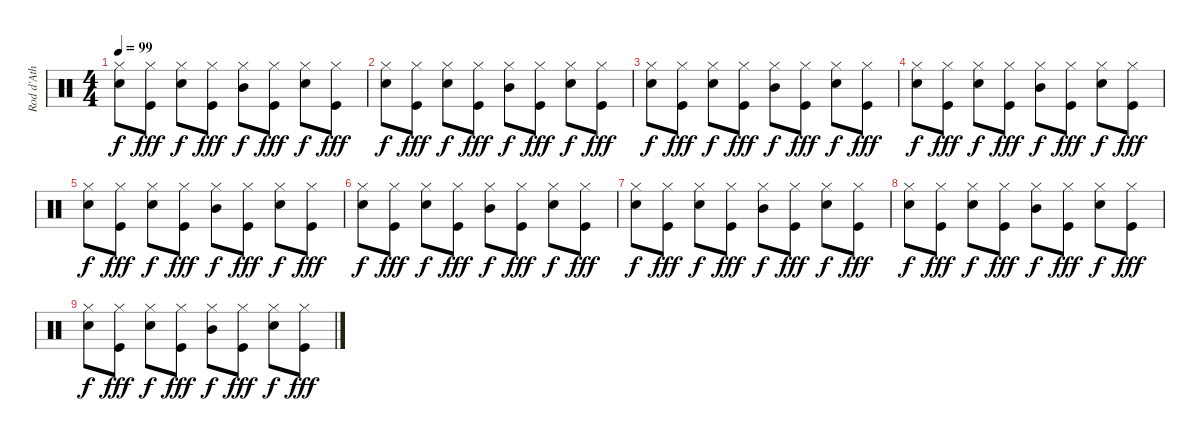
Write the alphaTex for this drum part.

\track ("Rod d'Ath" "Rod d'Ath") {instrument percussion}
\staff {score}
\articulation defaults
\ts (4 4)
\tempo 99
\clef neutral
\ks c
("Hi-Hat (closed)" "Snare (hit) 2").8{dy f} ("Hi-Hat (closed)" "Kick (hit)").8{dy fff} ("Hi-Hat (closed)" "Snare (hit) 2").8{dy f} ("Hi-Hat (closed)" "Kick (hit)").8{dy fff} ("Hi-Hat (closed)" "Mid Tom (hit)").8{dy f} ("Hi-Hat (closed)" "Kick (hit)").8{dy fff} ("Hi-Hat (closed)" "Snare (hit) 2").8{dy f} ("Hi-Hat (closed)" "Kick (hit)").8{dy fff} |
("Hi-Hat (closed)" "Snare (hit) 2").8{dy f} ("Hi-Hat (closed)" "Kick (hit)").8{dy fff} ("Hi-Hat (closed)" "Snare (hit) 2").8{dy f} ("Hi-Hat (closed)" "Kick (hit)").8{dy fff} ("Hi-Hat (closed)" "Mid Tom (hit)").8{dy f} ("Hi-Hat (closed)" "Kick (hit)").8{dy fff} ("Hi-Hat (closed)" "Snare (hit) 2").8{dy f} ("Hi-Hat (closed)" "Kick (hit)").8{dy fff} |
("Hi-Hat (closed)" "Snare (hit) 2").8{dy f} ("Hi-Hat (closed)" "Kick (hit)").8{dy fff} ("Hi-Hat (closed)" "Snare (hit) 2").8{dy f} ("Hi-Hat (closed)" "Kick (hit)").8{dy fff} ("Hi-Hat (closed)" "Mid Tom (hit)").8{dy f} ("Hi-Hat (closed)" "Kick (hit)").8{dy fff} ("Hi-Hat (closed)" "Snare (hit) 2").8{dy f} ("Hi-Hat (closed)" "Kick (hit)").8{dy fff} |
("Hi-Hat (closed)" "Snare (hit) 2").8{dy f} ("Hi-Hat (closed)" "Kick (hit)").8{dy fff} ("Hi-Hat (closed)" "Snare (hit) 2").8{dy f} ("Hi-Hat (closed)" "Kick (hit)").8{dy fff} ("Hi-Hat (closed)" "Mid Tom (hit)").8{dy f} ("Hi-Hat (closed)" "Kick (hit)").8{dy fff} ("Hi-Hat (closed)" "Snare (hit) 2").8{dy f} ("Hi-Hat (closed)" "Kick (hit)").8{dy fff} |
("Hi-Hat (closed)" "Snare (hit) 2").8{dy f} ("Hi-Hat (closed)" "Kick (hit)").8{dy fff} ("Hi-Hat (closed)" "Snare (hit) 2").8{dy f} ("Hi-Hat (closed)" "Kick (hit)").8{dy fff} ("Hi-Hat (closed)" "Mid Tom (hit)").8{dy f} ("Hi-Hat (closed)" "Kick (hit)").8{dy fff} ("Hi-Hat (closed)" "Snare (hit) 2").8{dy f} ("Hi-Hat (closed)" "Kick (hit)").8{dy fff} |
("Hi-Hat (closed)" "Snare (hit) 2").8{dy f} ("Hi-Hat (closed)" "Kick (hit)").8{dy fff} ("Hi-Hat (closed)" "Snare (hit) 2").8{dy f} ("Hi-Hat (closed)" "Kick (hit)").8{dy fff} ("Hi-Hat (closed)" "Mid Tom (hit)").8{dy f} ("Hi-Hat (closed)" "Kick (hit)").8{dy fff} ("Hi-Hat (closed)" "Snare (hit) 2").8{dy f} ("Hi-Hat (closed)" "Kick (hit)").8{dy fff} |
("Hi-Hat (closed)" "Snare (hit) 2").8{dy f} ("Hi-Hat (closed)" "Kick (hit)").8{dy fff} ("Hi-Hat (closed)" "Snare (hit) 2").8{dy f} ("Hi-Hat (closed)" "Kick (hit)").8{dy fff} ("Hi-Hat (closed)" "Mid Tom (hit)").8{dy f} ("Hi-Hat (closed)" "Kick (hit)").8{dy fff} ("Hi-Hat (closed)" "Snare (hit) 2").8{dy f} ("Hi-Hat (closed)" "Kick (hit)").8{dy fff} |
("Hi-Hat (closed)" "Snare (hit) 2").8{dy f} ("Hi-Hat (closed)" "Kick (hit)").8{dy fff} ("Hi-Hat (closed)" "Snare (hit) 2").8{dy f} ("Hi-Hat (closed)" "Kick (hit)").8{dy fff} ("Hi-Hat (closed)" "Mid Tom (hit)").8{dy f} ("Hi-Hat (closed)" "Kick (hit)").8{dy fff} ("Hi-Hat (closed)" "Snare (hit) 2").8{dy f} ("Hi-Hat (closed)" "Kick (hit)").8{dy fff} |
("Hi-Hat (closed)" "Snare (hit) 2").8{dy f} ("Hi-Hat (closed)" "Kick (hit)").8{dy fff} ("Hi-Hat (closed)" "Snare (hit) 2").8{dy f} ("Hi-Hat (closed)" "Kick (hit)").8{dy fff} ("Hi-Hat (closed)" "Mid Tom (hit)").8{dy f} ("Hi-Hat (closed)" "Kick (hit)").8{dy fff} ("Hi-Hat (closed)" "Snare (hit) 2").8{dy f} ("Hi-Hat (closed)" "Kick (hit)").8{dy fff}
